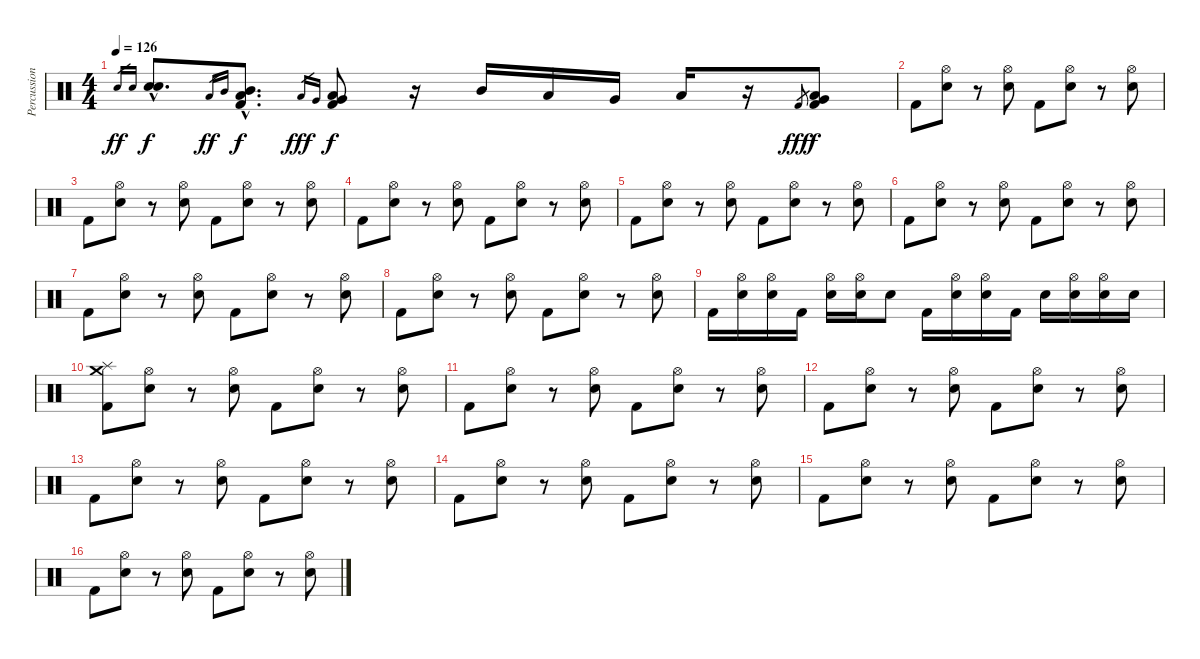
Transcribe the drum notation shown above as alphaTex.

\track ("Percussions" "Percussion") {instrument percussion}
\staff {score}
\articulation defaults
\ts (4 4)
\tempo 126
\clef neutral
\ks c "Snare (hit) 2".16{gr dy ff} "Electric Snare (hit)".16{gr}
("Snare (hit) 2"{hac} "Electric Snare (hit)"{hac}).8{d dy f} "Low Tom (hit)".16{gr dy ff} "Mid Tom (hit)".16{gr} ("Kick (hit) 2"{hac} "Low Tom (hit)"{hac} "Mid Tom (hit)"{hac}).8{d dy f} "Low Floor Tom (hit)".16{gr dy fff} "Very Low Tom (hit)".16{gr} ("Kick (hit) 2" "Low Floor Tom (hit)" "Very Low Tom (hit)").8{dy f} r.16 "Mid Tom (hit)".16 "Low Tom (hit)".16 "Very Low Tom (hit)".16 "Low Floor Tom (hit)".16 r.16 "Kick (hit) 2".8{gr dy fff} ("Kick (hit) 2" "Low Floor Tom (hit)" "Very Low Tom (hit)").8{dy f} |
"Kick (hit) 2".8 ("Snare (hit) 2" "Hi-Hat (open)").8 r.8 ("Snare (hit) 2" "Hi-Hat (open)").8 "Kick (hit) 2".8 ("Snare (hit) 2" "Hi-Hat (open)").8 r.8 ("Snare (hit) 2" "Hi-Hat (open)").8 |
"Kick (hit) 2".8 ("Snare (hit) 2" "Hi-Hat (open)").8 r.8 ("Snare (hit) 2" "Hi-Hat (open)").8 "Kick (hit) 2".8 ("Snare (hit) 2" "Hi-Hat (open)").8 r.8 ("Snare (hit) 2" "Hi-Hat (open)").8 |
"Kick (hit) 2".8 ("Snare (hit) 2" "Hi-Hat (open)").8 r.8 ("Snare (hit) 2" "Hi-Hat (open)").8 "Kick (hit) 2".8 ("Snare (hit) 2" "Hi-Hat (open)").8 r.8 ("Snare (hit) 2" "Hi-Hat (open)").8 |
"Kick (hit) 2".8 ("Snare (hit) 2" "Hi-Hat (open)").8 r.8 ("Snare (hit) 2" "Hi-Hat (open)").8 "Kick (hit) 2".8 ("Snare (hit) 2" "Hi-Hat (open)").8 r.8 ("Snare (hit) 2" "Hi-Hat (open)").8 |
"Kick (hit) 2".8 ("Snare (hit) 2" "Hi-Hat (open)").8 r.8 ("Snare (hit) 2" "Hi-Hat (open)").8 "Kick (hit) 2".8 ("Snare (hit) 2" "Hi-Hat (open)").8 r.8 ("Snare (hit) 2" "Hi-Hat (open)").8 |
"Kick (hit) 2".8 ("Snare (hit) 2" "Hi-Hat (open)").8 r.8 ("Snare (hit) 2" "Hi-Hat (open)").8 "Kick (hit) 2".8 ("Snare (hit) 2" "Hi-Hat (open)").8 r.8 ("Snare (hit) 2" "Hi-Hat (open)").8 |
"Kick (hit) 2".8 ("Snare (hit) 2" "Hi-Hat (open)").8 r.8 ("Snare (hit) 2" "Hi-Hat (open)").8 "Kick (hit) 2".8 ("Snare (hit) 2" "Hi-Hat (open)").8 r.8 ("Snare (hit) 2" "Hi-Hat (open)").8 |
"Kick (hit) 2".16 ("Snare (hit) 2" "Hi-Hat (open)").16 ("Snare (hit) 2" "Hi-Hat (open)").16 "Kick (hit) 2".16 ("Snare (hit) 2" "Hi-Hat (open)").16 ("Snare (hit) 2" "Hi-Hat (open)").16 "Snare (hit) 2".8 "Kick (hit) 2".16 ("Snare (hit) 2" "Hi-Hat (open)").16 ("Snare (hit) 2" "Hi-Hat (open)").16 "Kick (hit) 2".16 "Snare (hit) 2".16 ("Snare (hit) 2" "Hi-Hat (open)").16 ("Snare (hit) 2" "Hi-Hat (open)").16 "Snare (hit) 2".16 |
("Kick (hit) 2" "Splash (hit)" "Crash medium (hit)").8 ("Snare (hit) 2" "Hi-Hat (open)").8 r.8 ("Snare (hit) 2" "Hi-Hat (open)").8 "Kick (hit) 2".8 ("Snare (hit) 2" "Hi-Hat (open)").8 r.8 ("Snare (hit) 2" "Hi-Hat (open)").8 |
"Kick (hit) 2".8 ("Snare (hit) 2" "Hi-Hat (open)").8 r.8 ("Snare (hit) 2" "Hi-Hat (open)").8 "Kick (hit) 2".8 ("Snare (hit) 2" "Hi-Hat (open)").8 r.8 ("Snare (hit) 2" "Hi-Hat (open)").8 |
"Kick (hit) 2".8 ("Snare (hit) 2" "Hi-Hat (open)").8 r.8 ("Snare (hit) 2" "Hi-Hat (open)").8 "Kick (hit) 2".8 ("Snare (hit) 2" "Hi-Hat (open)").8 r.8 ("Snare (hit) 2" "Hi-Hat (open)").8 |
"Kick (hit) 2".8 ("Snare (hit) 2" "Hi-Hat (open)").8 r.8 ("Snare (hit) 2" "Hi-Hat (open)").8 "Kick (hit) 2".8 ("Snare (hit) 2" "Hi-Hat (open)").8 r.8 ("Snare (hit) 2" "Hi-Hat (open)").8 |
"Kick (hit) 2".8 ("Snare (hit) 2" "Hi-Hat (open)").8 r.8 ("Snare (hit) 2" "Hi-Hat (open)").8 "Kick (hit) 2".8 ("Snare (hit) 2" "Hi-Hat (open)").8 r.8 ("Snare (hit) 2" "Hi-Hat (open)").8 |
"Kick (hit) 2".8 ("Snare (hit) 2" "Hi-Hat (open)").8 r.8 ("Snare (hit) 2" "Hi-Hat (open)").8 "Kick (hit) 2".8 ("Snare (hit) 2" "Hi-Hat (open)").8 r.8 ("Snare (hit) 2" "Hi-Hat (open)").8 |
"Kick (hit) 2".8 ("Snare (hit) 2" "Hi-Hat (open)").8 r.8 ("Snare (hit) 2" "Hi-Hat (open)").8 "Kick (hit) 2".8 ("Snare (hit) 2" "Hi-Hat (open)").8 r.8 ("Snare (hit) 2" "Hi-Hat (open)").8
